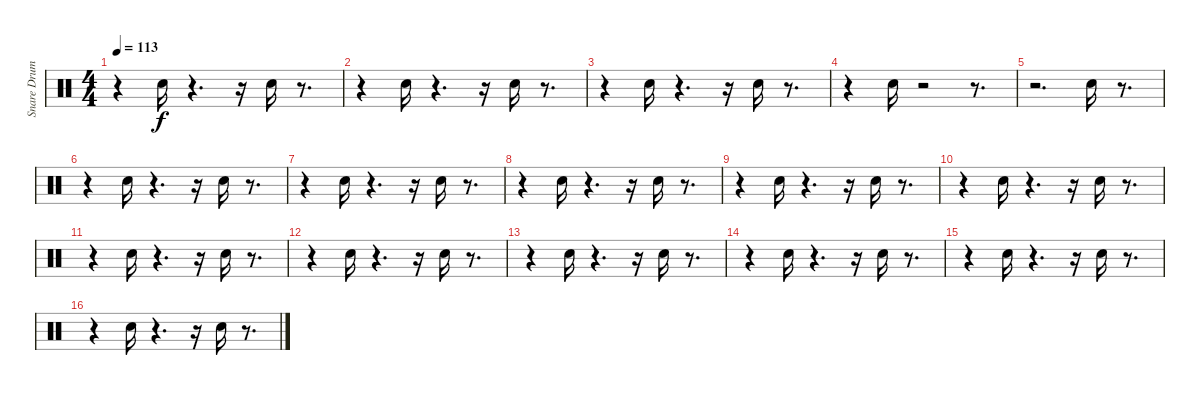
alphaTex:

\track ("Snare Drum" "Snare Drum") {instrument percussion}
\staff {score}
\articulation defaults
\ts (4 4)
\tempo 113
\clef neutral
\ks c
r.4{dy f} "Snare (hit) 2".16 r.4{d} r.16 "Snare (hit) 2".16 r.8{d} |
r.4 "Snare (hit) 2".16 r.4{d} r.16 "Snare (hit) 2".16 r.8{d} |
r.4 "Snare (hit) 2".16 r.4{d} r.16 "Snare (hit) 2".16 r.8{d} |
r.4 "Snare (hit) 2".16 r.2 r.8{d} |
r.2{d} "Snare (hit) 2".16 r.8{d} |
r.4 "Snare (hit) 2".16 r.4{d} r.16 "Snare (hit) 2".16 r.8{d} |
r.4 "Snare (hit) 2".16 r.4{d} r.16 "Snare (hit) 2".16 r.8{d} |
r.4 "Snare (hit) 2".16 r.4{d} r.16 "Snare (hit) 2".16 r.8{d} |
r.4 "Snare (hit) 2".16 r.4{d} r.16 "Snare (hit) 2".16 r.8{d} |
r.4 "Snare (hit) 2".16 r.4{d} r.16 "Snare (hit) 2".16 r.8{d} |
r.4 "Snare (hit) 2".16 r.4{d} r.16 "Snare (hit) 2".16 r.8{d} |
r.4 "Snare (hit) 2".16 r.4{d} r.16 "Snare (hit) 2".16 r.8{d} |
r.4 "Snare (hit) 2".16 r.4{d} r.16 "Snare (hit) 2".16 r.8{d} |
r.4 "Snare (hit) 2".16 r.4{d} r.16 "Snare (hit) 2".16 r.8{d} |
r.4 "Snare (hit) 2".16 r.4{d} r.16 "Snare (hit) 2".16 r.8{d} |
r.4 "Snare (hit) 2".16 r.4{d} r.16 "Snare (hit) 2".16 r.8{d}
